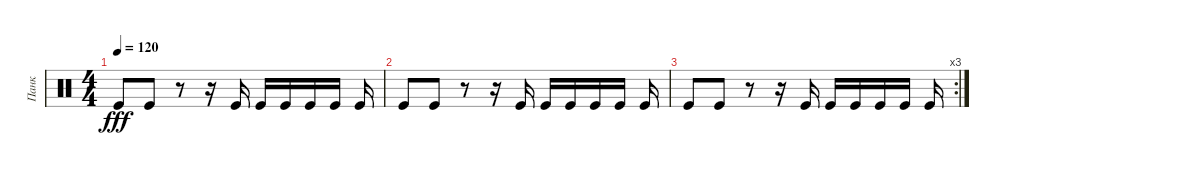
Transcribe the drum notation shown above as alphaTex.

\track ("Панк" "Панк") {instrument percussion}
\staff {score}
\articulation defaults
\ts (4 4)
\tempo 120
\clef neutral
\ks c "Kick (hit)".8{dy fff} "Kick (hit)".8
r.8 r.16 "Kick (hit)".16 "Kick (hit)".16 "Kick (hit)".16 "Kick (hit)".16 "Kick (hit)".16 "Kick (hit)".16 |
"Kick (hit)".8 "Kick (hit)".8 r.8 r.16 "Kick (hit)".16 "Kick (hit)".16 "Kick (hit)".16 "Kick (hit)".16 "Kick (hit)".16 "Kick (hit)".16 |
\rc 3 "Kick (hit)".8 "Kick (hit)".8
r.8 r.16 "Kick (hit)".16 "Kick (hit)".16 "Kick (hit)".16 "Kick (hit)".16 "Kick (hit)".16 "Kick (hit)".16
